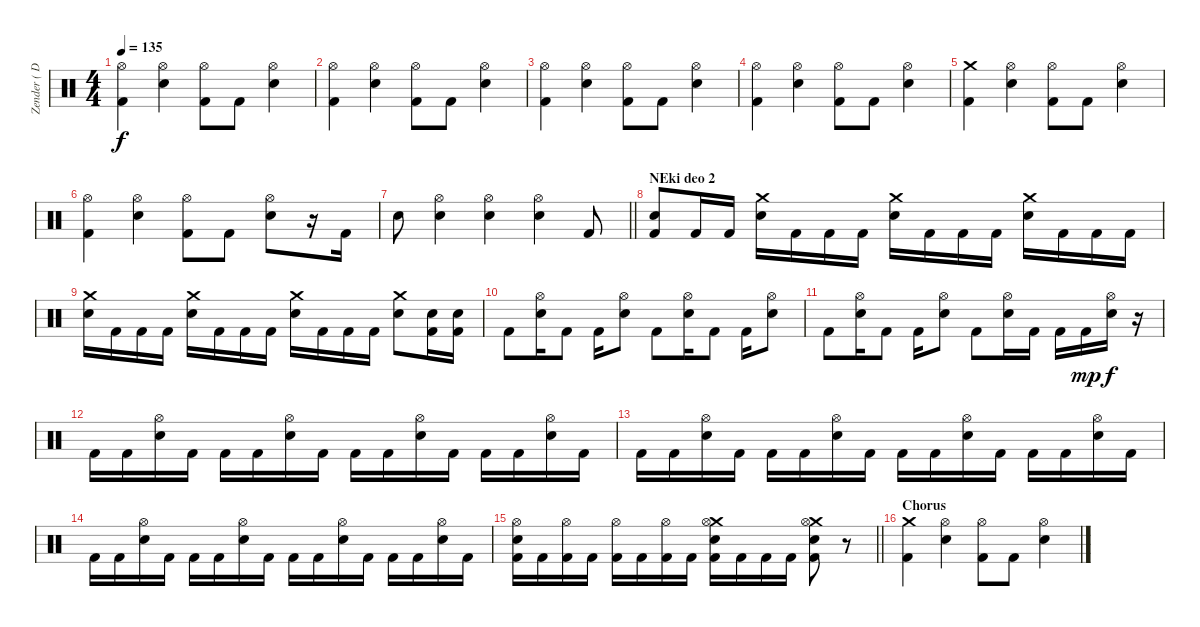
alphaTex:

\track ("Zender ( Drums )" "Zender ( D") {instrument percussion}
\staff {score}
\articulation defaults
\ts (4 4)
\tempo 135
\clef neutral
\ks c
("Hi-Hat (open)" "Kick (hit) 2").4{dy f} ("Hi-Hat (open)" "Electric Snare (hit)").4 ("Hi-Hat (open)" "Kick (hit) 2").8 "Kick (hit) 2".8 ("Hi-Hat (open)" "Electric Snare (hit)").4 |
("Hi-Hat (open)" "Kick (hit) 2").4 ("Hi-Hat (open)" "Electric Snare (hit)").4 ("Hi-Hat (open)" "Kick (hit) 2").8 "Kick (hit) 2".8 ("Hi-Hat (open)" "Electric Snare (hit)").4 |
("Hi-Hat (open)" "Kick (hit) 2").4 ("Hi-Hat (open)" "Electric Snare (hit)").4 ("Hi-Hat (open)" "Kick (hit) 2").8 "Kick (hit) 2".8 ("Hi-Hat (open)" "Electric Snare (hit)").4 |
("Hi-Hat (open)" "Kick (hit) 2").4 ("Hi-Hat (open)" "Electric Snare (hit)").4 ("Hi-Hat (open)" "Kick (hit) 2").8 "Kick (hit) 2".8 ("Hi-Hat (open)" "Electric Snare (hit)").4 |
("Crash medium (hit)" "Kick (hit) 2").4 ("Hi-Hat (open)" "Electric Snare (hit)").4 ("Hi-Hat (open)" "Kick (hit) 2").8 "Kick (hit) 2".8 ("Hi-Hat (open)" "Electric Snare (hit)").4 |
("Hi-Hat (open)" "Kick (hit) 2").4 ("Hi-Hat (open)" "Electric Snare (hit)").4 ("Hi-Hat (open)" "Kick (hit) 2").8 "Kick (hit) 2".8 ("Hi-Hat (open)" "Electric Snare (hit)").8 r.16 "Kick (hit) 2".16 |
\barLineRight lightlight "Electric Snare (hit)".8
("Hi-Hat (open)" "Electric Snare (hit)").4 ("Hi-Hat (open)" "Electric Snare (hit)").4 ("Hi-Hat (open)" "Electric Snare (hit)").4 "Kick (hit) 2".8 |
\section ("" "NEki deo 2")
("Snare (hit) 2" "Kick (hit) 2").8 "Kick (hit) 2".16 "Kick (hit) 2".16 ("Crash medium (hit)" "Snare (hit) 2").16 "Kick (hit) 2".16 "Kick (hit) 2".16 "Kick (hit) 2".16 ("Crash medium (hit)" "Snare (hit) 2").16 "Kick (hit) 2".16 "Kick (hit) 2".16 "Kick (hit) 2".16 ("Crash medium (hit)" "Snare (hit) 2").16 "Kick (hit) 2".16 "Kick (hit) 2".16 "Kick (hit) 2".16 |
("Crash medium (hit)" "Snare (hit) 2").16 "Kick (hit) 2".16 "Kick (hit) 2".16 "Kick (hit) 2".16 ("Crash medium (hit)" "Snare (hit) 2").16 "Kick (hit) 2".16 "Kick (hit) 2".16 "Kick (hit) 2".16 ("Crash medium (hit)" "Snare (hit) 2").16 "Kick (hit) 2".16 "Kick (hit) 2".16 "Kick (hit) 2".16 ("Crash medium (hit)" "Snare (hit) 2").8 ("Snare (hit) 2" "Kick (hit) 2").16 ("Snare (hit) 2" "Kick (hit) 2").16 |
"Kick (hit) 2".8 ("Hi-Hat (open)" "Snare (hit) 2").16 "Kick (hit) 2".8 "Kick (hit) 2".16 ("Hi-Hat (open)" "Snare (hit) 2").8 "Kick (hit) 2".8 ("Hi-Hat (open)" "Snare (hit) 2").16 "Kick (hit) 2".8 "Kick (hit) 2".16 ("Hi-Hat (open)" "Snare (hit) 2").8 |
"Kick (hit) 2".8 ("Hi-Hat (open)" "Snare (hit) 2").16 "Kick (hit) 2".8 "Kick (hit) 2".16 ("Hi-Hat (open)" "Snare (hit) 2").8 "Kick (hit) 2".8 ("Hi-Hat (open)" "Snare (hit) 2").16 "Kick (hit) 2".16 "Kick (hit) 2".16 "Kick (hit) 2".16{dy mp} ("Hi-Hat (open)" "Snare (hit) 2").16{dy f} r.16 |
"Kick (hit) 2".16 "Kick (hit) 2".16 ("Hi-Hat (open)" "Snare (hit) 2").16 "Kick (hit) 2".16 "Kick (hit) 2".16 "Kick (hit) 2".16 ("Hi-Hat (open)" "Snare (hit) 2").16 "Kick (hit) 2".16 "Kick (hit) 2".16 "Kick (hit) 2".16 ("Hi-Hat (open)" "Snare (hit) 2").16 "Kick (hit) 2".16 "Kick (hit) 2".16 "Kick (hit) 2".16 ("Hi-Hat (open)" "Snare (hit) 2").16 "Kick (hit) 2".16 |
"Kick (hit) 2".16 "Kick (hit) 2".16 ("Hi-Hat (open)" "Snare (hit) 2").16 "Kick (hit) 2".16 "Kick (hit) 2".16 "Kick (hit) 2".16 ("Hi-Hat (open)" "Snare (hit) 2").16 "Kick (hit) 2".16 "Kick (hit) 2".16 "Kick (hit) 2".16 ("Hi-Hat (open)" "Snare (hit) 2").16 "Kick (hit) 2".16 "Kick (hit) 2".16 "Kick (hit) 2".16 ("Hi-Hat (open)" "Snare (hit) 2").16 "Kick (hit) 2".16 |
"Kick (hit) 2".16 "Kick (hit) 2".16 ("Hi-Hat (open)" "Snare (hit) 2").16 "Kick (hit) 2".16 "Kick (hit) 2".16 "Kick (hit) 2".16 ("Hi-Hat (open)" "Snare (hit) 2").16 "Kick (hit) 2".16 "Kick (hit) 2".16 "Kick (hit) 2".16 ("Hi-Hat (open)" "Snare (hit) 2").16 "Kick (hit) 2".16 "Kick (hit) 2".16 "Kick (hit) 2".16 ("Hi-Hat (open)" "Snare (hit) 2").16 "Kick (hit) 2".16 |
\barLineRight lightlight
("Hi-Hat (open)" "Snare (hit) 2" "Kick (hit) 2").16 "Kick (hit) 2".16 ("Hi-Hat (open)" "Kick (hit) 2").16 "Kick (hit) 2".16 ("Hi-Hat (open)" "Kick (hit) 2").16 "Kick (hit) 2".16 ("Hi-Hat (open)" "Kick (hit) 2").16 "Kick (hit) 2".16 ("Crash medium (hit)" "Hi-Hat (open)" "Snare (hit) 2" "Kick (hit) 2").16 "Kick (hit) 2".16 "Kick (hit) 2".16 "Kick (hit) 2".16 ("Crash medium (hit)" "Hi-Hat (open)" "Snare (hit) 2" "Kick (hit) 2").8 r.8 |
\section ("" "Chorus")
("Crash medium (hit)" "Kick (hit) 2").4 ("Hi-Hat (open)" "Electric Snare (hit)").4 ("Hi-Hat (open)" "Kick (hit) 2").8 "Kick (hit) 2".8 ("Hi-Hat (open)" "Electric Snare (hit)").4
